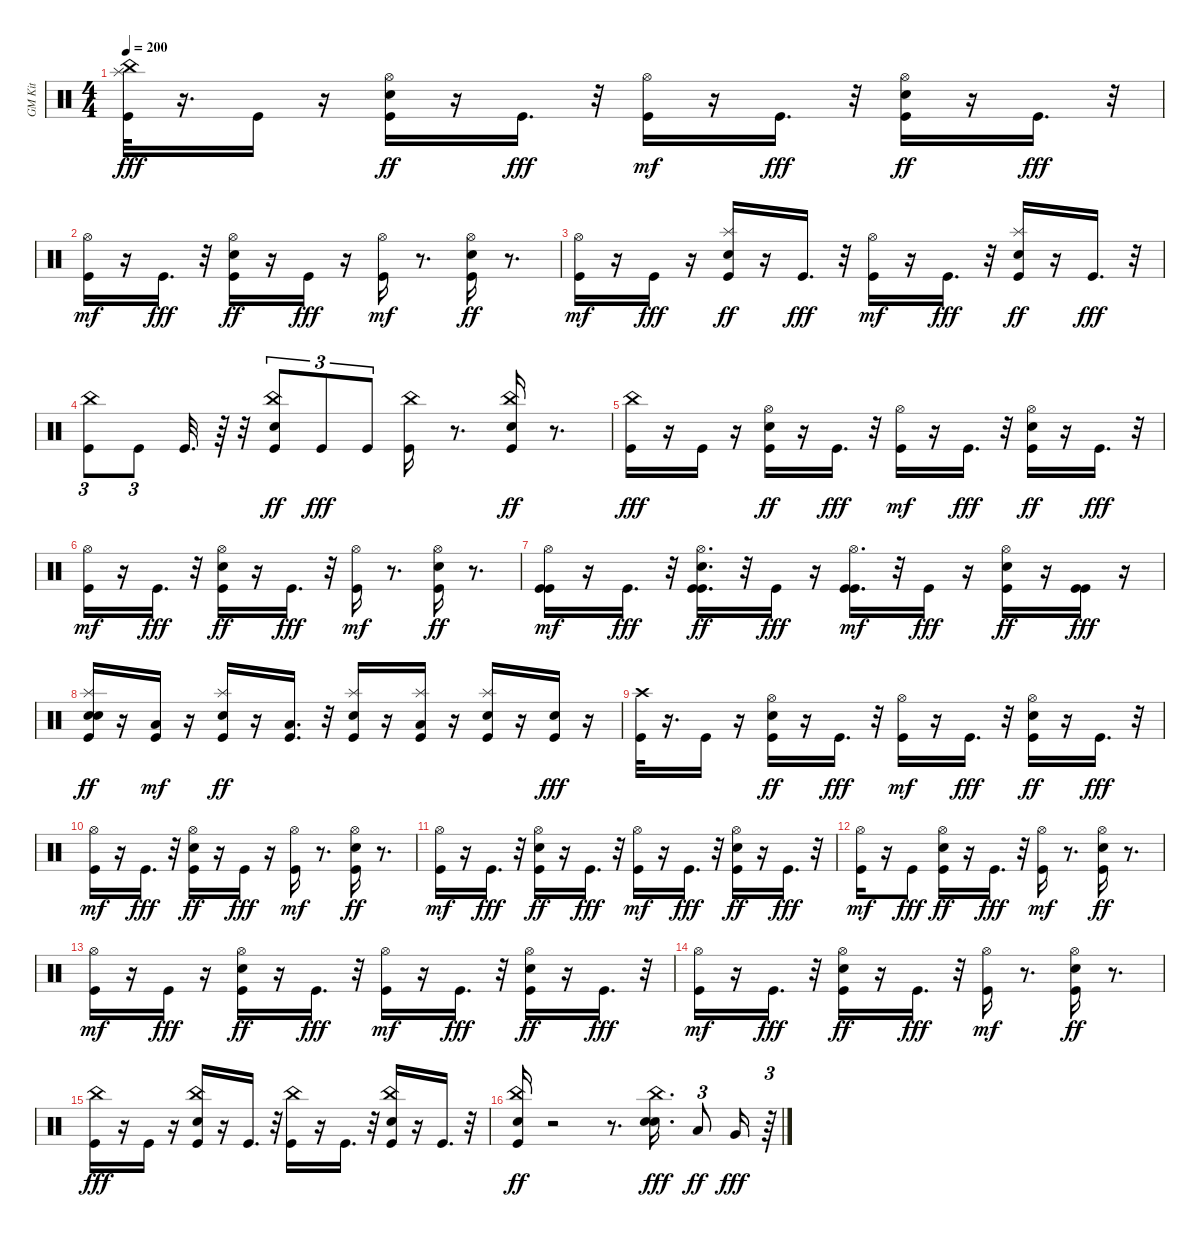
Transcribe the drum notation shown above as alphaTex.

\track ("GM Kit" "GM Kit") {instrument percussion}
\staff {score}
\articulation defaults
\ts (4 4)
\tempo 200
\clef neutral
\ks c
("Kick (hit)" "China (hit)" "Splash (hit)").32{dy fff} r.16{d} "Kick (hit)".16 r.16 ("Kick (hit)" "Snare (hit) 2" "Hi-Hat (open)").16{dy ff} r.16 "Kick (hit)".16{d dy fff} r.32 ("Kick (hit)" "Hi-Hat (open)").16{dy mf} r.16 "Kick (hit)".16{d dy fff} r.32 ("Kick (hit)" "Snare (hit) 2" "Hi-Hat (open)").16{dy ff} r.16 "Kick (hit)".16{d dy fff} r.32 |
("Kick (hit)" "Hi-Hat (open)").16{dy mf} r.16 "Kick (hit)".16{d dy fff} r.32 ("Kick (hit)" "Snare (hit) 2" "Hi-Hat (open)").16{dy ff} r.16 "Kick (hit)".16{dy fff} r.16 ("Kick (hit)" "Hi-Hat (open)").16{dy mf} r.8{d} ("Kick (hit)" "Snare (hit) 2" "Hi-Hat (open)").16{dy ff} r.8{d} |
("Kick (hit)" "Hi-Hat (open)").16{dy mf} r.16 "Kick (hit)".16{dy fff} r.16 ("Kick (hit)" "Snare (hit) 2" "Splash (hit)").16{dy ff} r.16 "Kick (hit)".16{d dy fff} r.32 ("Kick (hit)" "Hi-Hat (open)").16{dy mf} r.16 "Kick (hit)".16{d dy fff} r.32 ("Kick (hit)" "Snare (hit) 2" "Splash (hit)").16{dy ff} r.16 "Kick (hit)".16{d dy fff} r.32 |
("Kick (hit)" "China (hit)").8{tu (3 2)} "Kick (hit)".8{tu (3 2)} "Kick (hit)".32{d} r.64 r.32 ("Kick (hit)" "Snare (hit) 2" "China (hit)").8{tu (3 2) dy ff} "Kick (hit)".8{tu (3 2) dy fff} "Kick (hit)".8{tu (3 2)} ("Kick (hit)" "China (hit)").16 r.8{d} ("Kick (hit)" "Snare (hit) 2" "China (hit)").16{dy ff} r.8{d} |
("Kick (hit)" "China (hit)").16{dy fff} r.16 "Kick (hit)".16 r.16 ("Kick (hit)" "Snare (hit) 2" "Hi-Hat (open)").16{dy ff} r.16 "Kick (hit)".16{d dy fff} r.32 ("Kick (hit)" "Hi-Hat (open)").16{dy mf} r.16 "Kick (hit)".16{d dy fff} r.32 ("Kick (hit)" "Snare (hit) 2" "Hi-Hat (open)").16{dy ff} r.16 "Kick (hit)".16{d dy fff} r.32 |
("Kick (hit)" "Hi-Hat (open)").16{dy mf} r.16 "Kick (hit)".16{d dy fff} r.32 ("Kick (hit)" "Snare (hit) 2" "Hi-Hat (open)").16{dy ff} r.16 "Kick (hit)".16{d dy fff} r.32 ("Kick (hit)" "Hi-Hat (open)").16{dy mf} r.8{d} ("Kick (hit)" "Snare (hit) 2" "Hi-Hat (open)").16{dy ff} r.8{d} |
("Kick (hit)" "Kick (hit)" "Hi-Hat (open)").16{dy mf} r.16 "Kick (hit)".16{d dy fff} r.32 ("Kick (hit)" "Kick (hit)" "Snare (hit) 2" "Hi-Hat (open)").16{d dy ff} r.32 "Kick (hit)".16{dy fff} r.16 ("Kick (hit)" "Kick (hit)" "Hi-Hat (open)").16{d dy mf} r.32 "Kick (hit)".16{dy fff} r.16 ("Kick (hit)" "Snare (hit) 2" "Hi-Hat (open)").16{dy ff} r.16 ("Kick (hit)" "Kick (hit)").16{dy fff} r.16 |
("Kick (hit)" "Snare (hit) 2" "Electric Snare (hit)" "Splash (hit)").16{dy ff} r.16 ("Kick (hit)" "Low Floor Tom (hit)").16{dy mf} r.16 ("Kick (hit)" "Snare (hit) 2" "Splash (hit)").16{dy ff} r.16 ("Kick (hit)" "Low Floor Tom (hit)").16{d} r.32 ("Kick (hit)" "Snare (hit) 2" "Splash (hit)").16 r.16 ("Kick (hit)" "Low Floor Tom (hit)" "Splash (hit)").16 r.16 ("Kick (hit)" "Snare (hit) 2" "Splash (hit)").16 r.16 ("Kick (hit)" "Electric Snare (hit)").16{dy fff} r.16 |
("Kick (hit)" "Crash high (hit)").32 r.16{d} "Kick (hit)".16 r.16 ("Kick (hit)" "Snare (hit) 2" "Hi-Hat (open)").16{dy ff} r.16 "Kick (hit)".16{d dy fff} r.32 ("Kick (hit)" "Hi-Hat (open)").16{dy mf} r.16 "Kick (hit)".16{d dy fff} r.32 ("Kick (hit)" "Snare (hit) 2" "Hi-Hat (open)").16{dy ff} r.16 "Kick (hit)".16{d dy fff} r.32 |
("Kick (hit)" "Hi-Hat (open)").16{dy mf} r.16 "Kick (hit)".16{d dy fff} r.32 ("Kick (hit)" "Snare (hit) 2" "Hi-Hat (open)").16{dy ff} r.16 "Kick (hit)".16{dy fff} r.16 ("Kick (hit)" "Hi-Hat (open)").16{dy mf} r.8{d} ("Kick (hit)" "Snare (hit) 2" "Hi-Hat (open)").16{dy ff} r.8{d} |
("Kick (hit)" "Hi-Hat (open)").16{dy mf} r.16 "Kick (hit)".16{d dy fff} r.32 ("Kick (hit)" "Snare (hit) 2" "Hi-Hat (open)").16{dy ff} r.16 "Kick (hit)".16{d dy fff} r.32 ("Kick (hit)" "Hi-Hat (open)").16{dy mf} r.16 "Kick (hit)".16{d dy fff} r.32 ("Kick (hit)" "Snare (hit) 2" "Hi-Hat (open)").16{dy ff} r.16 "Kick (hit)".16{d dy fff} r.32 |
("Kick (hit)" "Hi-Hat (open)").16{dy mf} r.16 "Kick (hit)".8{dy fff} ("Kick (hit)" "Snare (hit) 2" "Hi-Hat (open)").16{dy ff} r.16 "Kick (hit)".16{d dy fff} r.32 ("Kick (hit)" "Hi-Hat (open)").16{dy mf} r.8{d} ("Kick (hit)" "Snare (hit) 2" "Hi-Hat (open)").16{dy ff} r.8{d} |
("Kick (hit)" "Hi-Hat (open)").16{dy mf} r.16 "Kick (hit)".16{dy fff} r.16 ("Kick (hit)" "Snare (hit) 2" "Hi-Hat (open)").16{dy ff} r.16 "Kick (hit)".16{d dy fff} r.32 ("Kick (hit)" "Hi-Hat (open)").16{dy mf} r.16 "Kick (hit)".16{d dy fff} r.32 ("Kick (hit)" "Snare (hit) 2" "Hi-Hat (open)").16{dy ff} r.16 "Kick (hit)".16{d dy fff} r.32 |
("Kick (hit)" "Hi-Hat (open)").16{dy mf} r.16 "Kick (hit)".16{d dy fff} r.32 ("Kick (hit)" "Snare (hit) 2" "Hi-Hat (open)").16{dy ff} r.16 "Kick (hit)".16{d dy fff} r.32 ("Kick (hit)" "Hi-Hat (open)").16{dy mf} r.8{d} ("Kick (hit)" "Snare (hit) 2" "Hi-Hat (open)").16{dy ff} r.8{d} |
("Kick (hit)" "China (hit)").16{dy fff} r.16 "Kick (hit)".16 r.16 ("Kick (hit)" "Snare (hit) 2" "China (hit)").16 r.16 "Kick (hit)".16{d} r.32 ("Kick (hit)" "China (hit)").16 r.16 "Kick (hit)".16{d} r.32 ("Kick (hit)" "Snare (hit) 2" "China (hit)").16 r.16 "Kick (hit)".16{d} r.32 |
("Kick (hit)" "Snare (hit) 2" "China (hit)").16{dy ff} r.2 r.8{d} ("Snare (hit) 2" "China (hit)" "Snare (hit) 2").16{d dy fff} "Low Tom (hit)".8{tu (3 2) dy ff} "Very Low Tom (hit)".16{dy fff} r.64{tu (3 2)}
